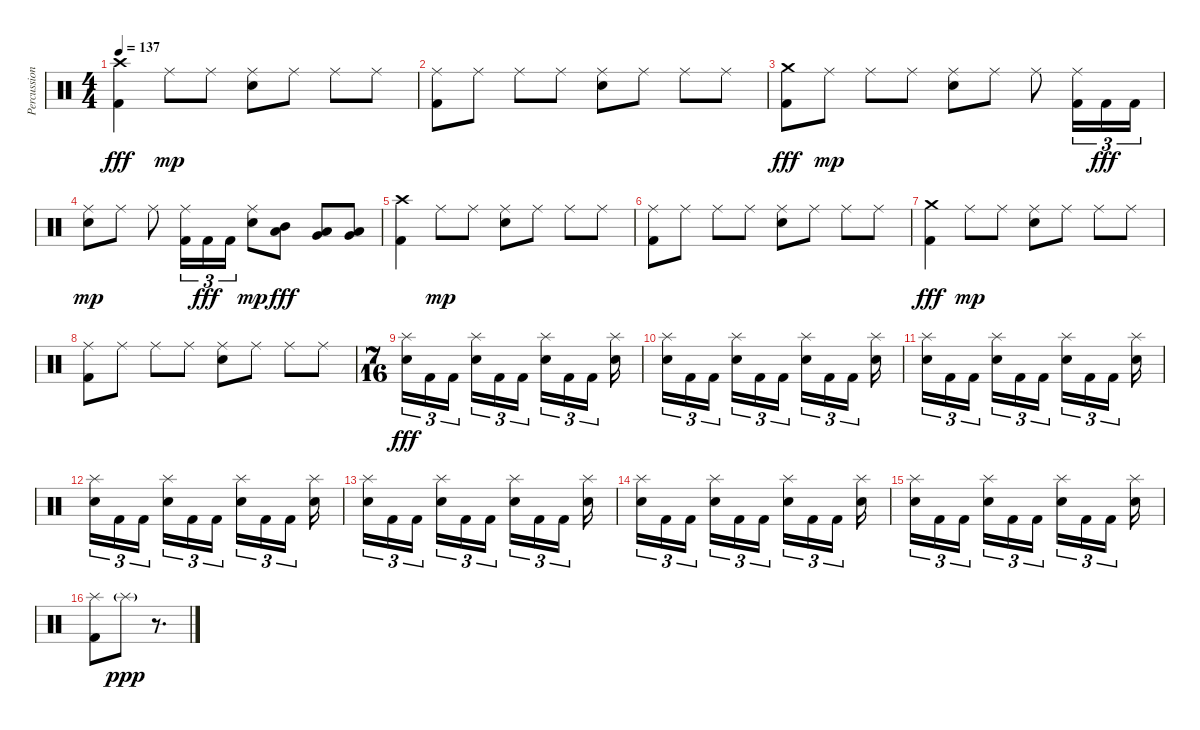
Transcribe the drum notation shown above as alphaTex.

\track ("Percussion" "Percussion") {instrument percussion}
\staff {score}
\articulation defaults
\ts (4 4)
\tempo 137
\clef neutral
\ks c
("Kick (hit) 2" "Crash high (hit)").4{dy fff} "Ride (middle)".8{dy mp} "Ride (middle)".8 ("Electric Snare (hit)" "Ride (middle)").8 "Ride (middle)".8 "Ride (middle)".8 "Ride (middle)".8 |
("Kick (hit) 2" "Ride (middle)").8 "Ride (middle)".8 "Ride (middle)".8 "Ride (middle)".8 ("Electric Snare (hit)" "Ride (middle)").8 "Ride (middle)".8 "Ride (middle)".8 "Ride (middle)".8 |
("Kick (hit) 2" "Crash medium (hit)").8{dy fff} "Ride (middle)".8{dy mp} "Ride (middle)".8 "Ride (middle)".8 ("Electric Snare (hit)" "Ride (middle)").8 "Ride (middle)".8 "Ride (middle)".8 ("Kick (hit) 2" "Ride (middle)").16{tu (3 2)} "Kick (hit) 2".16{tu (3 2) dy fff} "Kick (hit) 2".16{tu (3 2)} |
("Electric Snare (hit)" "Ride (middle)").8{dy mp} "Ride (middle)".8 "Ride (middle)".8 ("Kick (hit) 2" "Ride (middle)").16{tu (3 2)} "Kick (hit) 2".16{tu (3 2) dy fff} "Kick (hit) 2".16{tu (3 2)} ("Electric Snare (hit)" "Ride (middle)").8{dy mp} ("Low Tom (hit)" "Mid Tom (hit)").8{dy fff} ("Very Low Tom (hit)" "Low Tom (hit)").8 ("Low Floor Tom (hit)" "Very Low Tom (hit)").8 |
("Kick (hit) 2" "Crash high (hit)").4 "Ride (middle)".8{dy mp} "Ride (middle)".8 ("Electric Snare (hit)" "Ride (middle)").8 "Ride (middle)".8 "Ride (middle)".8 "Ride (middle)".8 |
("Kick (hit) 2" "Ride (middle)").8 "Ride (middle)".8 "Ride (middle)".8 "Ride (middle)".8 ("Electric Snare (hit)" "Ride (middle)").8 "Ride (middle)".8 "Ride (middle)".8 "Ride (middle)".8 |
("Kick (hit) 2" "Crash medium (hit)").4{dy fff} "Ride (middle)".8{dy mp} "Ride (middle)".8 ("Electric Snare (hit)" "Ride (middle)").8 "Ride (middle)".8 "Ride (middle)".8 "Ride (middle)".8 |
("Kick (hit) 2" "Ride (middle)").8 "Ride (middle)".8 "Ride (middle)".8 "Ride (middle)".8 ("Electric Snare (hit)" "Ride (middle)").8 "Ride (middle)".8 "Ride (middle)".8 "Ride (middle)".8 |
\ts (7 16)
("Electric Snare (hit)" "Splash (hit)").16{tu (3 2) dy fff} "Kick (hit) 2".16{tu (3 2)} "Kick (hit) 2".16{tu (3 2)} ("Electric Snare (hit)" "Splash (hit)").16{tu (3 2)} "Kick (hit) 2".16{tu (3 2)} "Kick (hit) 2".16{tu (3 2)} ("Electric Snare (hit)" "Splash (hit)").16{tu (3 2)} "Kick (hit) 2".16{tu (3 2)} "Kick (hit) 2".16{tu (3 2)} ("Electric Snare (hit)" "Splash (hit)").16 |
("Electric Snare (hit)" "Splash (hit)").16{tu (3 2)} "Kick (hit) 2".16{tu (3 2)} "Kick (hit) 2".16{tu (3 2)} ("Electric Snare (hit)" "Splash (hit)").16{tu (3 2)} "Kick (hit) 2".16{tu (3 2)} "Kick (hit) 2".16{tu (3 2)} ("Electric Snare (hit)" "Splash (hit)").16{tu (3 2)} "Kick (hit) 2".16{tu (3 2)} "Kick (hit) 2".16{tu (3 2)} ("Electric Snare (hit)" "Splash (hit)").16 |
("Electric Snare (hit)" "Splash (hit)").16{tu (3 2)} "Kick (hit) 2".16{tu (3 2)} "Kick (hit) 2".16{tu (3 2)} ("Electric Snare (hit)" "Splash (hit)").16{tu (3 2)} "Kick (hit) 2".16{tu (3 2)} "Kick (hit) 2".16{tu (3 2)} ("Electric Snare (hit)" "Splash (hit)").16{tu (3 2)} "Kick (hit) 2".16{tu (3 2)} "Kick (hit) 2".16{tu (3 2)} ("Electric Snare (hit)" "Splash (hit)").16 |
("Electric Snare (hit)" "Splash (hit)").16{tu (3 2)} "Kick (hit) 2".16{tu (3 2)} "Kick (hit) 2".16{tu (3 2)} ("Electric Snare (hit)" "Splash (hit)").16{tu (3 2)} "Kick (hit) 2".16{tu (3 2)} "Kick (hit) 2".16{tu (3 2)} ("Electric Snare (hit)" "Splash (hit)").16{tu (3 2)} "Kick (hit) 2".16{tu (3 2)} "Kick (hit) 2".16{tu (3 2)} ("Electric Snare (hit)" "Splash (hit)").16 |
("Electric Snare (hit)" "Splash (hit)").16{tu (3 2)} "Kick (hit) 2".16{tu (3 2)} "Kick (hit) 2".16{tu (3 2)} ("Electric Snare (hit)" "Splash (hit)").16{tu (3 2)} "Kick (hit) 2".16{tu (3 2)} "Kick (hit) 2".16{tu (3 2)} ("Electric Snare (hit)" "Splash (hit)").16{tu (3 2)} "Kick (hit) 2".16{tu (3 2)} "Kick (hit) 2".16{tu (3 2)} ("Electric Snare (hit)" "Splash (hit)").16 |
("Electric Snare (hit)" "Splash (hit)").16{tu (3 2)} "Kick (hit) 2".16{tu (3 2)} "Kick (hit) 2".16{tu (3 2)} ("Electric Snare (hit)" "Splash (hit)").16{tu (3 2)} "Kick (hit) 2".16{tu (3 2)} "Kick (hit) 2".16{tu (3 2)} ("Electric Snare (hit)" "Splash (hit)").16{tu (3 2)} "Kick (hit) 2".16{tu (3 2)} "Kick (hit) 2".16{tu (3 2)} ("Electric Snare (hit)" "Splash (hit)").16 |
("Electric Snare (hit)" "Splash (hit)").16{tu (3 2)} "Kick (hit) 2".16{tu (3 2)} "Kick (hit) 2".16{tu (3 2)} ("Electric Snare (hit)" "Splash (hit)").16{tu (3 2)} "Kick (hit) 2".16{tu (3 2)} "Kick (hit) 2".16{tu (3 2)} ("Electric Snare (hit)" "Splash (hit)").16{tu (3 2)} "Kick (hit) 2".16{tu (3 2)} "Kick (hit) 2".16{tu (3 2)} ("Electric Snare (hit)" "Splash (hit)").16 |
("Kick (hit) 2" "Splash (hit)").8 "Splash (hit)"{g}.8{dy ppp} r.8{d}
